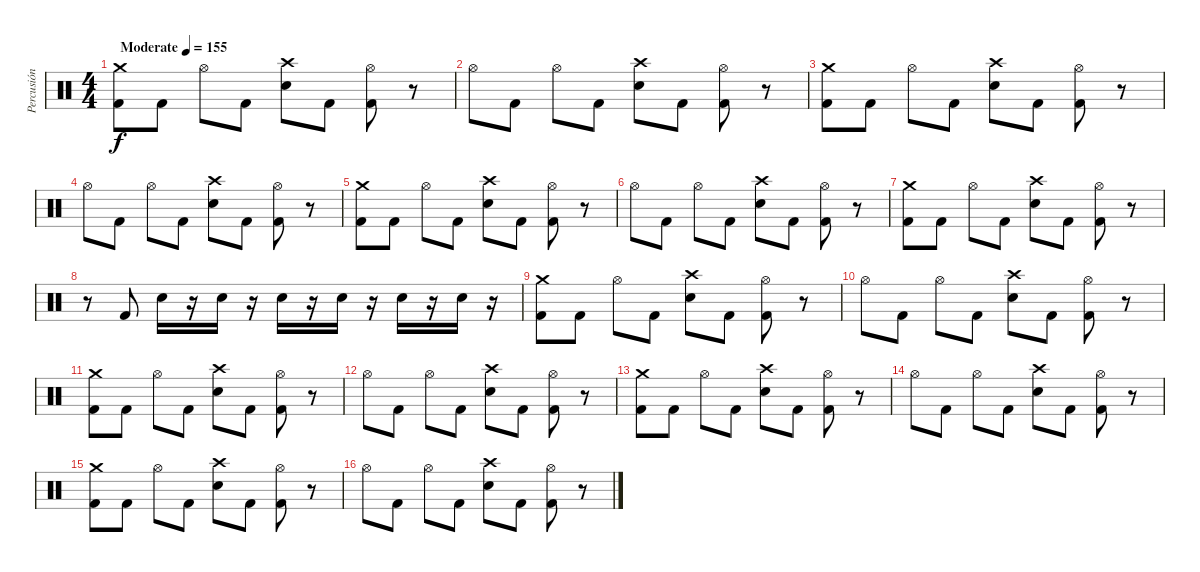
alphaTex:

\track ("Percusión" "Percusión") {instrument percussion}
\staff {score}
\articulation defaults
\ts (4 4)
\tempo (155 "Moderate")
\clef neutral
\ks c
("Crash medium (hit)" "Kick (hit) 2").8{dy f} "Kick (hit) 2".8 "Hi-Hat (open)".8 "Kick (hit) 2".8 ("Crash high (hit)" "Electric Snare (hit)").8 "Kick (hit) 2".8 ("Hi-Hat (open)" "Kick (hit) 2").8 r.8 |
"Hi-Hat (open)".8 "Kick (hit) 2".8 "Hi-Hat (open)".8 "Kick (hit) 2".8 ("Crash high (hit)" "Electric Snare (hit)").8 "Kick (hit) 2".8 ("Hi-Hat (open)" "Kick (hit) 2").8 r.8 |
("Crash medium (hit)" "Kick (hit) 2").8 "Kick (hit) 2".8 "Hi-Hat (open)".8 "Kick (hit) 2".8 ("Crash high (hit)" "Electric Snare (hit)").8 "Kick (hit) 2".8 ("Hi-Hat (open)" "Kick (hit) 2").8 r.8 |
"Hi-Hat (open)".8 "Kick (hit) 2".8 "Hi-Hat (open)".8 "Kick (hit) 2".8 ("Crash high (hit)" "Electric Snare (hit)").8 "Kick (hit) 2".8 ("Hi-Hat (open)" "Kick (hit) 2").8 r.8 |
("Crash medium (hit)" "Kick (hit) 2").8 "Kick (hit) 2".8 "Hi-Hat (open)".8 "Kick (hit) 2".8 ("Crash high (hit)" "Electric Snare (hit)").8 "Kick (hit) 2".8 ("Hi-Hat (open)" "Kick (hit) 2").8 r.8 |
"Hi-Hat (open)".8 "Kick (hit) 2".8 "Hi-Hat (open)".8 "Kick (hit) 2".8 ("Crash high (hit)" "Electric Snare (hit)").8 "Kick (hit) 2".8 ("Hi-Hat (open)" "Kick (hit) 2").8 r.8 |
("Crash medium (hit)" "Kick (hit) 2").8 "Kick (hit) 2".8 "Hi-Hat (open)".8 "Kick (hit) 2".8 ("Crash high (hit)" "Electric Snare (hit)").8 "Kick (hit) 2".8 ("Hi-Hat (open)" "Kick (hit) 2").8 r.8 |
r.8 "Kick (hit) 2".8 "Electric Snare (hit)".16 r.16 "Electric Snare (hit)".16 r.16 "Electric Snare (hit)".16 r.16 "Electric Snare (hit)".16 r.16 "Electric Snare (hit)".16 r.16 "Electric Snare (hit)".16 r.16 |
("Crash medium (hit)" "Kick (hit) 2").8 "Kick (hit) 2".8 "Hi-Hat (open)".8 "Kick (hit) 2".8 ("Crash high (hit)" "Electric Snare (hit)").8 "Kick (hit) 2".8 ("Hi-Hat (open)" "Kick (hit) 2").8 r.8 |
"Hi-Hat (open)".8 "Kick (hit) 2".8 "Hi-Hat (open)".8 "Kick (hit) 2".8 ("Crash high (hit)" "Electric Snare (hit)").8 "Kick (hit) 2".8 ("Hi-Hat (open)" "Kick (hit) 2").8 r.8 |
("Crash medium (hit)" "Kick (hit) 2").8 "Kick (hit) 2".8 "Hi-Hat (open)".8 "Kick (hit) 2".8 ("Crash high (hit)" "Electric Snare (hit)").8 "Kick (hit) 2".8 ("Hi-Hat (open)" "Kick (hit) 2").8 r.8 |
"Hi-Hat (open)".8 "Kick (hit) 2".8 "Hi-Hat (open)".8 "Kick (hit) 2".8 ("Crash high (hit)" "Electric Snare (hit)").8 "Kick (hit) 2".8 ("Hi-Hat (open)" "Kick (hit) 2").8 r.8 |
("Crash medium (hit)" "Kick (hit) 2").8 "Kick (hit) 2".8 "Hi-Hat (open)".8 "Kick (hit) 2".8 ("Crash high (hit)" "Electric Snare (hit)").8 "Kick (hit) 2".8 ("Hi-Hat (open)" "Kick (hit) 2").8 r.8 |
"Hi-Hat (open)".8 "Kick (hit) 2".8 "Hi-Hat (open)".8 "Kick (hit) 2".8 ("Crash high (hit)" "Electric Snare (hit)").8 "Kick (hit) 2".8 ("Hi-Hat (open)" "Kick (hit) 2").8 r.8 |
("Crash medium (hit)" "Kick (hit) 2").8 "Kick (hit) 2".8 "Hi-Hat (open)".8 "Kick (hit) 2".8 ("Crash high (hit)" "Electric Snare (hit)").8 "Kick (hit) 2".8 ("Hi-Hat (open)" "Kick (hit) 2").8 r.8 |
"Hi-Hat (open)".8 "Kick (hit) 2".8 "Hi-Hat (open)".8 "Kick (hit) 2".8 ("Crash high (hit)" "Electric Snare (hit)").8 "Kick (hit) 2".8 ("Hi-Hat (open)" "Kick (hit) 2").8 r.8
